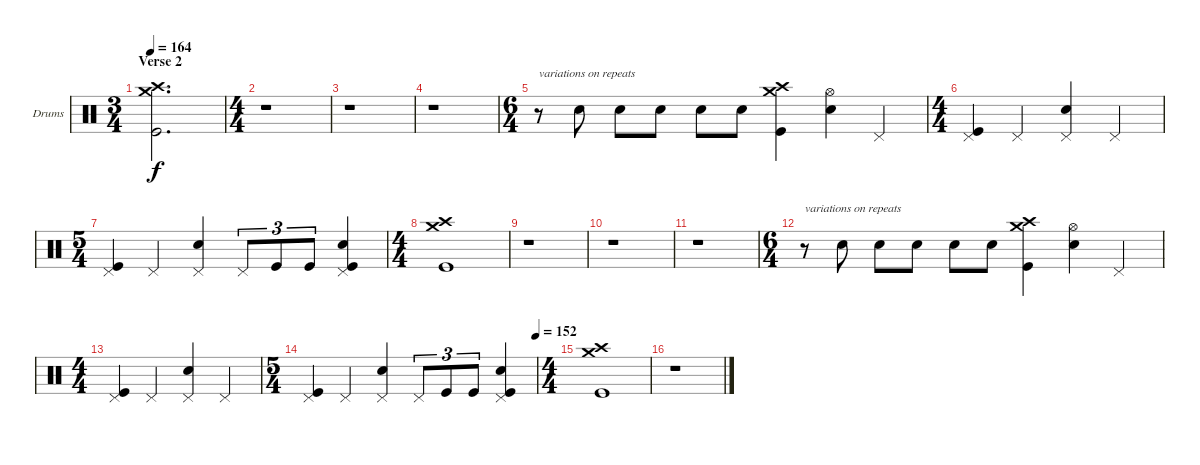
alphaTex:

\defaultSystemsLayout 4
\bracketExtendMode groupsimilarinstruments
\firstSystemTrackNameOrientation horizontal
\otherSystemsTrackNameOrientation horizontal
\track ("Drumkit" "Drums") {instrument percussion}
\staff {score}
\articulation defaults
\ts (3 4)
\section ("" "Verse 2")
\tempo 164
\clef neutral
\ks c
("Kick (hit)" "Crash medium (hit)" "Crash high (hit)").2{d dy f} |
\ts (4 4)
r.1 |
r.1 |
r.1 |
\ts (6 4)
r.8{txt "variations on repeats"} "Snare (hit) 2".8 "Snare (hit) 2".8 "Snare (hit) 2".8 "Snare (hit) 2".8 "Snare (hit) 2".8 ("Crash high (hit)" "Kick (hit)" "Crash medium (hit)").4 ("Snare (hit) 2" "Hi-Hat (open)").4 "Pedal Hi-Hat (hit)".4 |
\ts (4 4)
("Pedal Hi-Hat (hit)" "Kick (hit)").4 "Pedal Hi-Hat (hit)".4 ("Snare (hit) 2" "Pedal Hi-Hat (hit)").4 "Pedal Hi-Hat (hit)".4 |
\ts (5 4)
("Kick (hit)" "Pedal Hi-Hat (hit)").4 "Pedal Hi-Hat (hit)".4 ("Snare (hit) 2" "Pedal Hi-Hat (hit)").4 "Pedal Hi-Hat (hit)".8{tu (3 2)} "Kick (hit)".8{tu (3 2)} "Kick (hit)".8{tu (3 2)} ("Snare (hit) 2" "Pedal Hi-Hat (hit)" "Kick (hit)").4 |
\ts (4 4)
("Kick (hit)" "Crash medium (hit)" "Crash high (hit)").1 |
r.1 |
r.1 |
r.1 |
\ts (6 4)
r.8{txt "variations on repeats"} "Snare (hit) 2".8 "Snare (hit) 2".8 "Snare (hit) 2".8 "Snare (hit) 2".8 "Snare (hit) 2".8 ("Crash high (hit)" "Kick (hit)" "Crash medium (hit)").4 ("Snare (hit) 2" "Hi-Hat (open)").4 "Pedal Hi-Hat (hit)".4 |
\ts (4 4)
("Pedal Hi-Hat (hit)" "Kick (hit)").4 "Pedal Hi-Hat (hit)".4 ("Snare (hit) 2" "Pedal Hi-Hat (hit)").4 "Pedal Hi-Hat (hit)".4 |
\ts (5 4)
\tempo (152 1)
("Kick (hit)" "Pedal Hi-Hat (hit)").4 "Pedal Hi-Hat (hit)".4 ("Snare (hit) 2" "Pedal Hi-Hat (hit)").4 "Pedal Hi-Hat (hit)".8{tu (3 2)} "Kick (hit)".8{tu (3 2)} "Kick (hit)".8{tu (3 2)} ("Snare (hit) 2" "Pedal Hi-Hat (hit)" "Kick (hit)").4 |
\ts (4 4)
("Kick (hit)" "Crash medium (hit)" "Crash high (hit)").1 |
r.1
